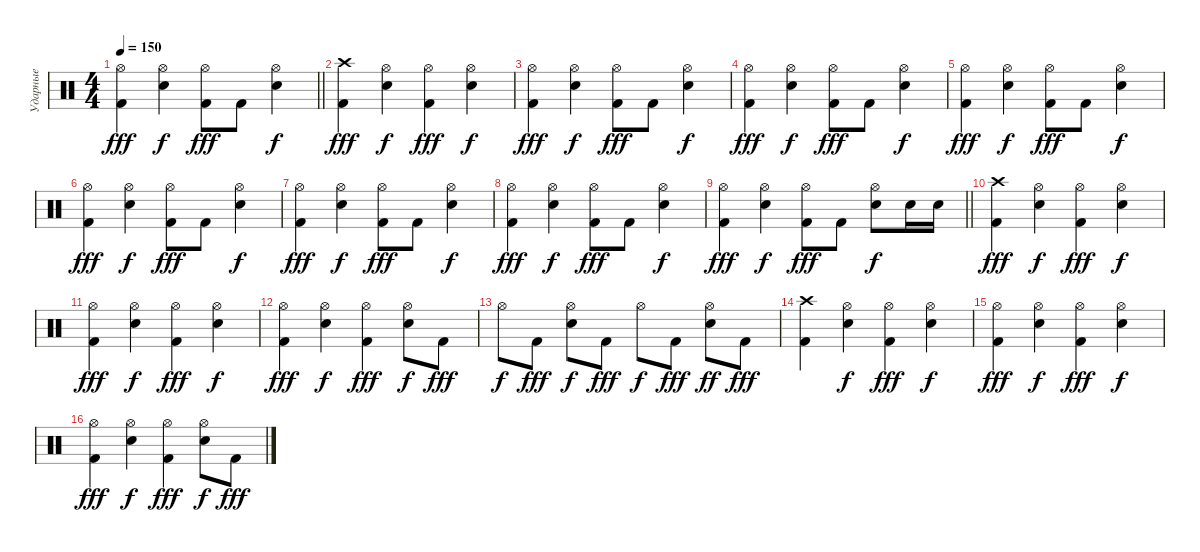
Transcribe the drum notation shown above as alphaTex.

\track ("Ударные" "Ударные") {instrument percussion}
\staff {score}
\articulation defaults
\ts (4 4)
\tempo 150
\clef neutral
\barLineRight lightlight
\ks c
("Kick (hit) 2" "Hi-Hat (open)").4{dy fff} ("Snare (hit) 2" "Hi-Hat (open)").4{dy f} ("Kick (hit) 2" "Hi-Hat (open)").8{dy fff} "Kick (hit) 2".8 ("Snare (hit) 2" "Hi-Hat (open)").4{dy f} |
("Kick (hit) 2" "Crash high (hit)").4{dy fff} ("Snare (hit) 2" "Hi-Hat (open)").4{dy f} ("Kick (hit) 2" "Hi-Hat (open)").4{dy fff} ("Snare (hit) 2" "Hi-Hat (open)").4{dy f} |
("Kick (hit) 2" "Hi-Hat (open)").4{dy fff} ("Snare (hit) 2" "Hi-Hat (open)").4{dy f} ("Kick (hit) 2" "Hi-Hat (open)").8{dy fff} "Kick (hit) 2".8 ("Snare (hit) 2" "Hi-Hat (open)").4{dy f} |
("Kick (hit) 2" "Hi-Hat (open)").4{dy fff} ("Snare (hit) 2" "Hi-Hat (open)").4{dy f} ("Kick (hit) 2" "Hi-Hat (open)").8{dy fff} "Kick (hit) 2".8 ("Snare (hit) 2" "Hi-Hat (open)").4{dy f} |
("Kick (hit) 2" "Hi-Hat (open)").4{dy fff} ("Snare (hit) 2" "Hi-Hat (open)").4{dy f} ("Kick (hit) 2" "Hi-Hat (open)").8{dy fff} "Kick (hit) 2".8 ("Snare (hit) 2" "Hi-Hat (open)").4{dy f} |
("Kick (hit) 2" "Hi-Hat (open)").4{dy fff} ("Snare (hit) 2" "Hi-Hat (open)").4{dy f} ("Kick (hit) 2" "Hi-Hat (open)").8{dy fff} "Kick (hit) 2".8 ("Snare (hit) 2" "Hi-Hat (open)").4{dy f} |
("Kick (hit) 2" "Hi-Hat (open)").4{dy fff} ("Snare (hit) 2" "Hi-Hat (open)").4{dy f} ("Kick (hit) 2" "Hi-Hat (open)").8{dy fff} "Kick (hit) 2".8 ("Snare (hit) 2" "Hi-Hat (open)").4{dy f} |
("Kick (hit) 2" "Hi-Hat (open)").4{dy fff} ("Snare (hit) 2" "Hi-Hat (open)").4{dy f} ("Kick (hit) 2" "Hi-Hat (open)").8{dy fff} "Kick (hit) 2".8 ("Snare (hit) 2" "Hi-Hat (open)").4{dy f} |
\barLineRight lightlight
("Kick (hit) 2" "Hi-Hat (open)").4{dy fff} ("Snare (hit) 2" "Hi-Hat (open)").4{dy f} ("Kick (hit) 2" "Hi-Hat (open)").8{dy fff} "Kick (hit) 2".8 ("Snare (hit) 2" "Hi-Hat (open)").8{dy f} "Snare (hit) 2".16 "Snare (hit) 2".16 |
("Kick (hit) 2" "Crash high (hit)").4{dy fff} ("Snare (hit) 2" "Hi-Hat (open)").4{dy f} ("Kick (hit) 2" "Hi-Hat (open)").4{dy fff} ("Snare (hit) 2" "Hi-Hat (open)").4{dy f} |
("Kick (hit) 2" "Hi-Hat (open)").4{dy fff} ("Snare (hit) 2" "Hi-Hat (open)").4{dy f} ("Kick (hit) 2" "Hi-Hat (open)").4{dy fff} ("Snare (hit) 2" "Hi-Hat (open)").4{dy f} |
("Kick (hit) 2" "Hi-Hat (open)").4{dy fff} ("Snare (hit) 2" "Hi-Hat (open)").4{dy f} ("Kick (hit) 2" "Hi-Hat (open)").4{dy fff} ("Snare (hit) 2" "Hi-Hat (open)").8{dy f} "Kick (hit) 2".8{dy fff} |
"Hi-Hat (open)".8{dy f} "Kick (hit) 2".8{dy fff} ("Snare (hit) 2" "Hi-Hat (open)").8{dy f} "Kick (hit) 2".8{dy fff} "Hi-Hat (open)".8{dy f} "Kick (hit) 2".8{dy fff} ("Snare (hit) 2" "Hi-Hat (open)").8{dy ff} "Kick (hit) 2".8{dy fff} |
("Kick (hit) 2" "Crash high (hit)").4 ("Snare (hit) 2" "Hi-Hat (open)").4{dy f} ("Kick (hit) 2" "Hi-Hat (open)").4{dy fff} ("Snare (hit) 2" "Hi-Hat (open)").4{dy f} |
("Kick (hit) 2" "Hi-Hat (open)").4{dy fff} ("Snare (hit) 2" "Hi-Hat (open)").4{dy f} ("Kick (hit) 2" "Hi-Hat (open)").4{dy fff} ("Snare (hit) 2" "Hi-Hat (open)").4{dy f} |
("Kick (hit) 2" "Hi-Hat (open)").4{dy fff} ("Snare (hit) 2" "Hi-Hat (open)").4{dy f} ("Kick (hit) 2" "Hi-Hat (open)").4{dy fff} ("Snare (hit) 2" "Hi-Hat (open)").8{dy f} "Kick (hit) 2".8{dy fff}
